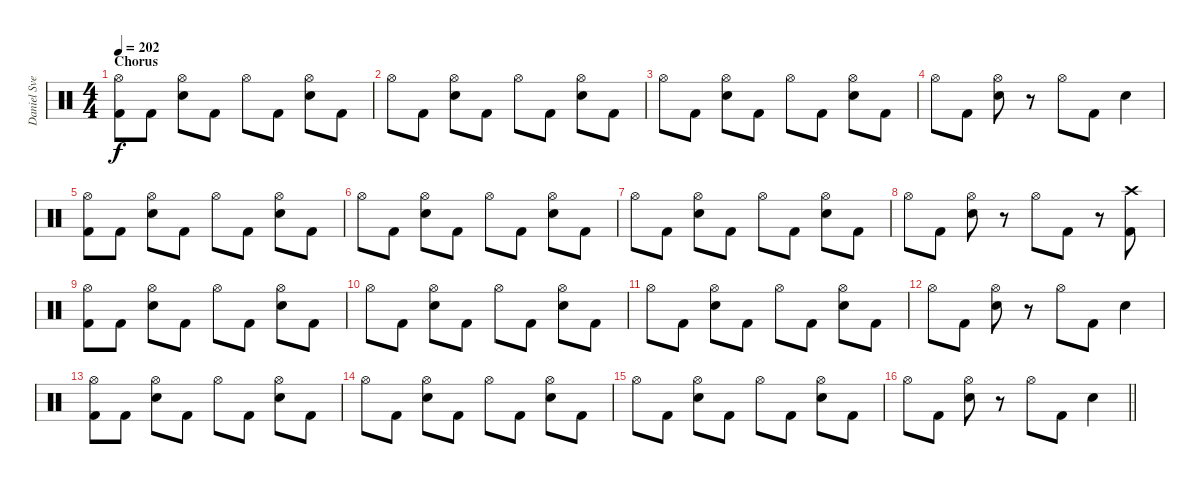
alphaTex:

\track ("Daniel Svensson" "Daniel Sve") {instrument percussion}
\staff {score}
\articulation defaults
\ts (4 4)
\section ("" "Chorus")
\tempo 202
\clef neutral
\ks c
("Hi-Hat (open)" "Kick (hit) 2").8{dy f} "Kick (hit) 2".8 ("Hi-Hat (open)" "Electric Snare (hit)").8 "Kick (hit) 2".8 "Hi-Hat (open)".8 "Kick (hit) 2".8 ("Hi-Hat (open)" "Electric Snare (hit)").8 "Kick (hit) 2".8 |
"Hi-Hat (open)".8 "Kick (hit) 2".8 ("Hi-Hat (open)" "Electric Snare (hit)").8 "Kick (hit) 2".8 "Hi-Hat (open)".8 "Kick (hit) 2".8 ("Hi-Hat (open)" "Electric Snare (hit)").8 "Kick (hit) 2".8 |
"Hi-Hat (open)".8 "Kick (hit) 2".8 ("Hi-Hat (open)" "Electric Snare (hit)").8 "Kick (hit) 2".8 "Hi-Hat (open)".8 "Kick (hit) 2".8 ("Hi-Hat (open)" "Electric Snare (hit)").8 "Kick (hit) 2".8 |
"Hi-Hat (open)".8 "Kick (hit) 2".8 ("Hi-Hat (open)" "Electric Snare (hit)").8 r.8 "Hi-Hat (open)".8 "Kick (hit) 2".8 "Electric Snare (hit)".4 |
("Hi-Hat (open)" "Kick (hit) 2").8 "Kick (hit) 2".8 ("Hi-Hat (open)" "Electric Snare (hit)").8 "Kick (hit) 2".8 "Hi-Hat (open)".8 "Kick (hit) 2".8 ("Hi-Hat (open)" "Electric Snare (hit)").8 "Kick (hit) 2".8 |
"Hi-Hat (open)".8 "Kick (hit) 2".8 ("Hi-Hat (open)" "Electric Snare (hit)").8 "Kick (hit) 2".8 "Hi-Hat (open)".8 "Kick (hit) 2".8 ("Hi-Hat (open)" "Electric Snare (hit)").8 "Kick (hit) 2".8 |
"Hi-Hat (open)".8 "Kick (hit) 2".8 ("Hi-Hat (open)" "Electric Snare (hit)").8 "Kick (hit) 2".8 "Hi-Hat (open)".8 "Kick (hit) 2".8 ("Hi-Hat (open)" "Electric Snare (hit)").8 "Kick (hit) 2".8 |
"Hi-Hat (open)".8 "Kick (hit) 2".8 ("Hi-Hat (open)" "Electric Snare (hit)").8 r.8 "Hi-Hat (open)".8 "Kick (hit) 2".8 r.8 ("Crash high (hit)" "Kick (hit) 2").8 |
("Hi-Hat (open)" "Kick (hit) 2").8 "Kick (hit) 2".8 ("Hi-Hat (open)" "Electric Snare (hit)").8 "Kick (hit) 2".8 "Hi-Hat (open)".8 "Kick (hit) 2".8 ("Hi-Hat (open)" "Electric Snare (hit)").8 "Kick (hit) 2".8 |
"Hi-Hat (open)".8 "Kick (hit) 2".8 ("Hi-Hat (open)" "Electric Snare (hit)").8 "Kick (hit) 2".8 "Hi-Hat (open)".8 "Kick (hit) 2".8 ("Hi-Hat (open)" "Electric Snare (hit)").8 "Kick (hit) 2".8 |
"Hi-Hat (open)".8 "Kick (hit) 2".8 ("Hi-Hat (open)" "Electric Snare (hit)").8 "Kick (hit) 2".8 "Hi-Hat (open)".8 "Kick (hit) 2".8 ("Hi-Hat (open)" "Electric Snare (hit)").8 "Kick (hit) 2".8 |
"Hi-Hat (open)".8 "Kick (hit) 2".8 ("Hi-Hat (open)" "Electric Snare (hit)").8 r.8 "Hi-Hat (open)".8 "Kick (hit) 2".8 "Electric Snare (hit)".4 |
("Hi-Hat (open)" "Kick (hit) 2").8 "Kick (hit) 2".8 ("Hi-Hat (open)" "Electric Snare (hit)").8 "Kick (hit) 2".8 "Hi-Hat (open)".8 "Kick (hit) 2".8 ("Hi-Hat (open)" "Electric Snare (hit)").8 "Kick (hit) 2".8 |
"Hi-Hat (open)".8 "Kick (hit) 2".8 ("Hi-Hat (open)" "Electric Snare (hit)").8 "Kick (hit) 2".8 "Hi-Hat (open)".8 "Kick (hit) 2".8 ("Hi-Hat (open)" "Electric Snare (hit)").8 "Kick (hit) 2".8 |
"Hi-Hat (open)".8 "Kick (hit) 2".8 ("Hi-Hat (open)" "Electric Snare (hit)").8 "Kick (hit) 2".8 "Hi-Hat (open)".8 "Kick (hit) 2".8 ("Hi-Hat (open)" "Electric Snare (hit)").8 "Kick (hit) 2".8 |
\barLineRight lightlight "Hi-Hat (open)".8 "Kick (hit) 2".8
("Hi-Hat (open)" "Electric Snare (hit)").8 r.8 "Hi-Hat (open)".8 "Kick (hit) 2".8 "Electric Snare (hit)".4
